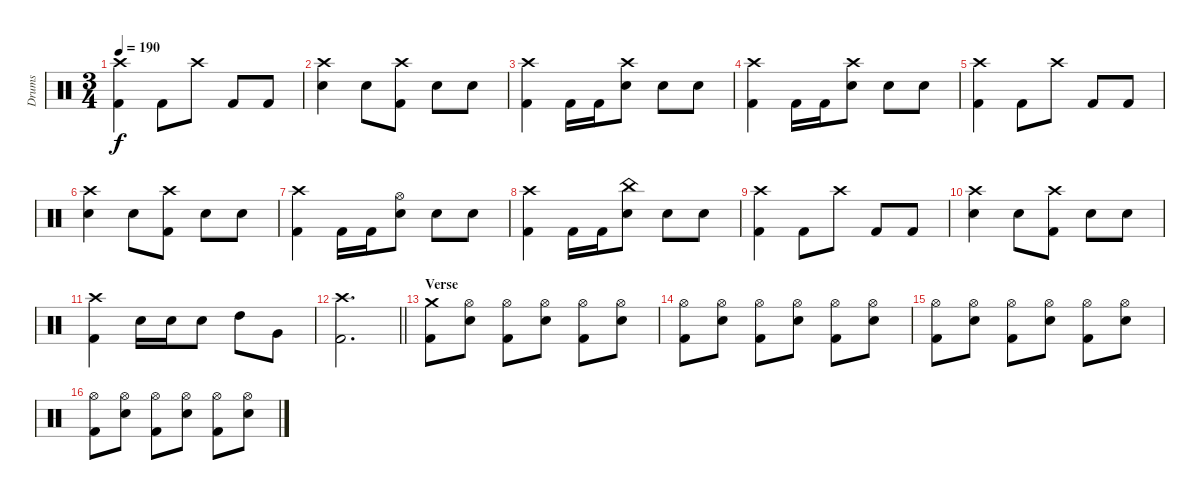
\track ("Drums" "Drums") {instrument percussion}
\staff {score}
\articulation defaults
\ts (3 4)
\tempo 190
\clef neutral
\ks c
("Crash high (hit)" "Kick (hit) 2").4{dy f} "Kick (hit) 2".8 "Crash high (hit)".8 "Kick (hit) 2".8 "Kick (hit) 2".8 |
("Crash high (hit)" "Snare (hit) 2").4 "Snare (hit) 2".8 ("Crash high (hit)" "Kick (hit) 2").8 "Snare (hit) 2".8 "Snare (hit) 2".8 |
("Crash high (hit)" "Kick (hit) 2").4 "Kick (hit) 2".16 "Kick (hit) 2".16 ("Crash high (hit)" "Snare (hit) 2").8 "Snare (hit) 2".8 "Snare (hit) 2".8 |
("Crash high (hit)" "Kick (hit) 2").4 "Kick (hit) 2".16 "Kick (hit) 2".16 ("Crash high (hit)" "Snare (hit) 2").8 "Snare (hit) 2".8 "Snare (hit) 2".8 |
("Crash high (hit)" "Kick (hit) 2").4 "Kick (hit) 2".8 "Crash high (hit)".8 "Kick (hit) 2".8 "Kick (hit) 2".8 |
("Crash high (hit)" "Snare (hit) 2").4 "Snare (hit) 2".8 ("Crash high (hit)" "Kick (hit) 2").8 "Snare (hit) 2".8 "Snare (hit) 2".8 |
("Crash high (hit)" "Kick (hit) 2").4 "Kick (hit) 2".16 "Kick (hit) 2".16 ("Hi-Hat (open)" "Snare (hit) 2").8 "Snare (hit) 2".8 "Snare (hit) 2".8 |
("Crash high (hit)" "Kick (hit) 2").4 "Kick (hit) 2".16 "Kick (hit) 2".16 ("China (hit)" "Snare (hit) 2").8 "Snare (hit) 2".8 "Snare (hit) 2".8 |
("Crash high (hit)" "Kick (hit) 2").4 "Kick (hit) 2".8 "Crash high (hit)".8 "Kick (hit) 2".8 "Kick (hit) 2".8 |
("Crash high (hit)" "Snare (hit) 2").4 "Snare (hit) 2".8 ("Crash high (hit)" "Kick (hit) 2").8 "Snare (hit) 2".8 "Snare (hit) 2".8 |
("Crash high (hit)" "Kick (hit) 2").4 "Snare (hit) 2".16 "Snare (hit) 2".16 "Snare (hit) 2".8 "High Tom (hit)".8 "Very Low Tom (hit)".8 |
\barLineRight lightlight
("Crash high (hit)" "Kick (hit) 2").2{d} |
\section ("" "Verse")
("Crash medium (hit)" "Kick (hit) 2").8 ("Hi-Hat (open)" "Snare (hit) 2").8 ("Hi-Hat (open)" "Kick (hit) 2").8 ("Hi-Hat (open)" "Snare (hit) 2").8 ("Hi-Hat (open)" "Kick (hit) 2").8 ("Hi-Hat (open)" "Snare (hit) 2").8 |
("Hi-Hat (open)" "Kick (hit) 2").8 ("Hi-Hat (open)" "Snare (hit) 2").8 ("Hi-Hat (open)" "Kick (hit) 2").8 ("Hi-Hat (open)" "Snare (hit) 2").8 ("Hi-Hat (open)" "Kick (hit) 2").8 ("Hi-Hat (open)" "Snare (hit) 2").8 |
("Hi-Hat (open)" "Kick (hit) 2").8 ("Hi-Hat (open)" "Snare (hit) 2").8 ("Hi-Hat (open)" "Kick (hit) 2").8 ("Hi-Hat (open)" "Snare (hit) 2").8 ("Hi-Hat (open)" "Kick (hit) 2").8 ("Hi-Hat (open)" "Snare (hit) 2").8 |
("Hi-Hat (open)" "Kick (hit) 2").8 ("Hi-Hat (open)" "Snare (hit) 2").8 ("Hi-Hat (open)" "Kick (hit) 2").8 ("Hi-Hat (open)" "Snare (hit) 2").8 ("Hi-Hat (open)" "Kick (hit) 2").8 ("Hi-Hat (open)" "Snare (hit) 2").8
